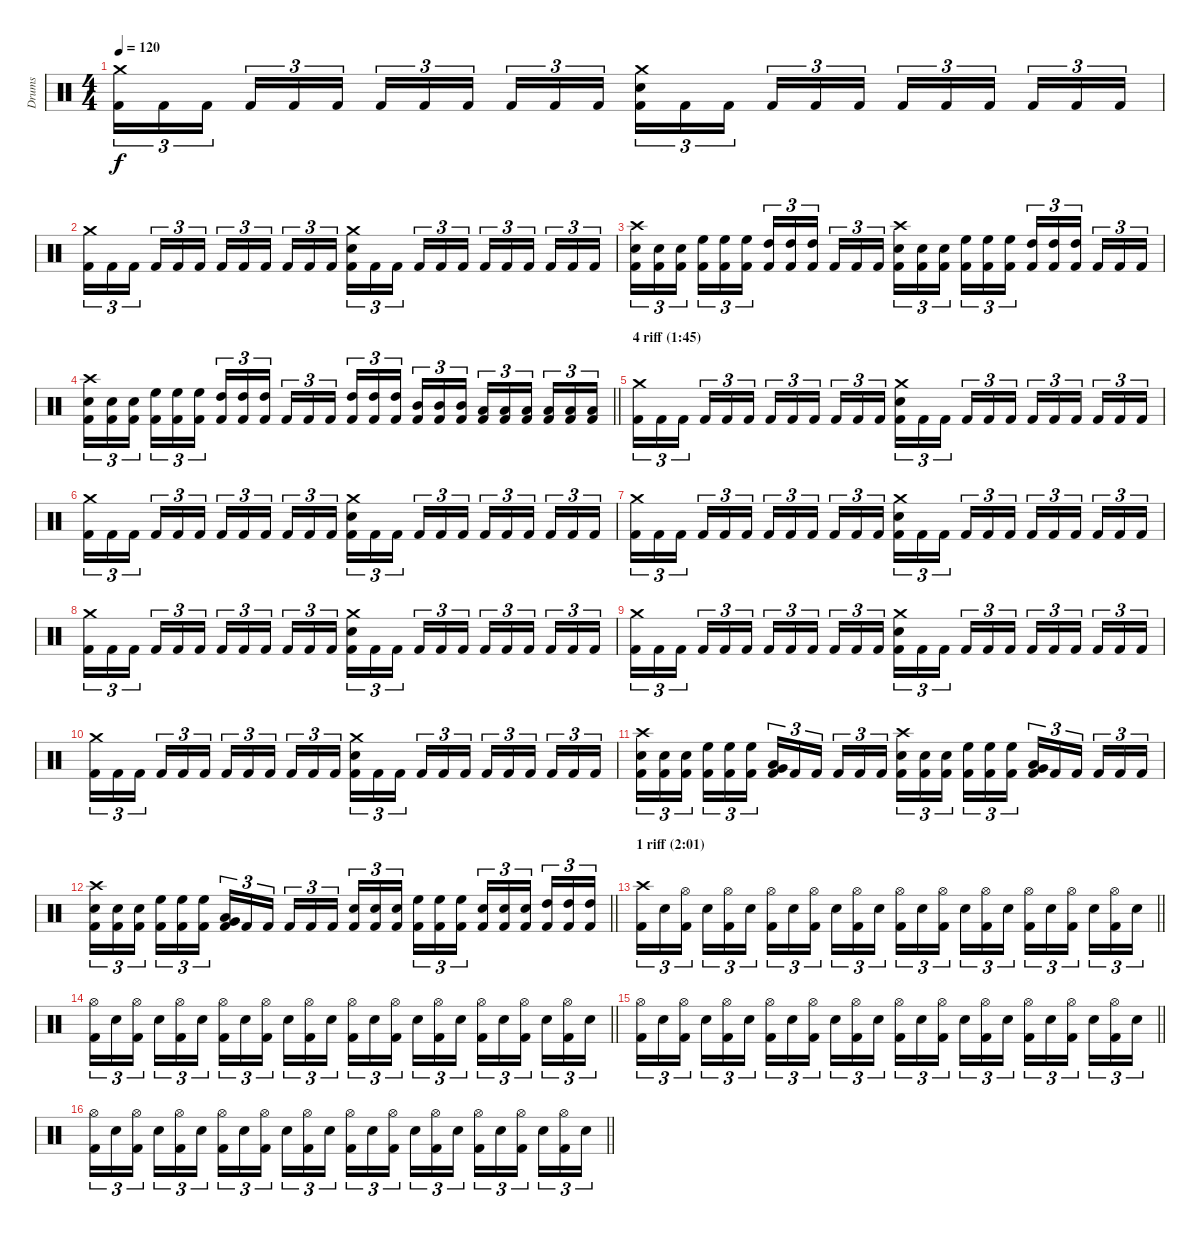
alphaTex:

\track ("Drums" "Drums") {instrument percussion}
\staff {score}
\articulation defaults
\ts (4 4)
\tempo 120
\clef neutral
\ks c
("Crash medium (hit)" "Kick (hit) 2").16{tu (3 2) dy f} "Kick (hit) 2".16{tu (3 2)} "Kick (hit) 2".16{tu (3 2) beam splitsecondary} "Kick (hit) 2".16{tu (3 2)} "Kick (hit) 2".16{tu (3 2)} "Kick (hit) 2".16{tu (3 2)} "Kick (hit) 2".16{tu (3 2)} "Kick (hit) 2".16{tu (3 2)} "Kick (hit) 2".16{tu (3 2) beam splitsecondary} "Kick (hit) 2".16{tu (3 2)} "Kick (hit) 2".16{tu (3 2)} "Kick (hit) 2".16{tu (3 2)} ("Crash medium (hit)" "Snare (hit) 2" "Kick (hit) 2").16{tu (3 2)} "Kick (hit) 2".16{tu (3 2)} "Kick (hit) 2".16{tu (3 2) beam splitsecondary} "Kick (hit) 2".16{tu (3 2)} "Kick (hit) 2".16{tu (3 2)} "Kick (hit) 2".16{tu (3 2)} "Kick (hit) 2".16{tu (3 2)} "Kick (hit) 2".16{tu (3 2)} "Kick (hit) 2".16{tu (3 2) beam splitsecondary} "Kick (hit) 2".16{tu (3 2)} "Kick (hit) 2".16{tu (3 2)} "Kick (hit) 2".16{tu (3 2)} |
("Crash medium (hit)" "Kick (hit) 2").16{tu (3 2)} "Kick (hit) 2".16{tu (3 2)} "Kick (hit) 2".16{tu (3 2) beam splitsecondary} "Kick (hit) 2".16{tu (3 2)} "Kick (hit) 2".16{tu (3 2)} "Kick (hit) 2".16{tu (3 2)} "Kick (hit) 2".16{tu (3 2)} "Kick (hit) 2".16{tu (3 2)} "Kick (hit) 2".16{tu (3 2) beam splitsecondary} "Kick (hit) 2".16{tu (3 2)} "Kick (hit) 2".16{tu (3 2)} "Kick (hit) 2".16{tu (3 2)} ("Crash medium (hit)" "Snare (hit) 2" "Kick (hit) 2").16{tu (3 2)} "Kick (hit) 2".16{tu (3 2)} "Kick (hit) 2".16{tu (3 2) beam splitsecondary} "Kick (hit) 2".16{tu (3 2)} "Kick (hit) 2".16{tu (3 2)} "Kick (hit) 2".16{tu (3 2)} "Kick (hit) 2".16{tu (3 2)} "Kick (hit) 2".16{tu (3 2)} "Kick (hit) 2".16{tu (3 2) beam splitsecondary} "Kick (hit) 2".16{tu (3 2)} "Kick (hit) 2".16{tu (3 2)} "Kick (hit) 2".16{tu (3 2)} |
("Crash high (hit)" "Snare (hit) 2" "Kick (hit) 2").16{tu (3 2)} ("Snare (hit) 2" "Kick (hit) 2").16{tu (3 2)} ("Snare (hit) 2" "Kick (hit) 2").16{tu (3 2) beam splitsecondary} ("High Floor Tom (hit)" "Kick (hit) 2").16{tu (3 2)} ("High Floor Tom (hit)" "Kick (hit) 2").16{tu (3 2)} ("High Floor Tom (hit)" "Kick (hit) 2").16{tu (3 2)} ("High Tom (hit)" "Kick (hit) 2").16{tu (3 2)} ("High Tom (hit)" "Kick (hit) 2").16{tu (3 2)} ("High Tom (hit)" "Kick (hit) 2").16{tu (3 2) beam splitsecondary} "Kick (hit) 2".16{tu (3 2)} "Kick (hit) 2".16{tu (3 2)} "Kick (hit) 2".16{tu (3 2)} ("Crash high (hit)" "Snare (hit) 2" "Kick (hit) 2").16{tu (3 2)} ("Snare (hit) 2" "Kick (hit) 2").16{tu (3 2)} ("Snare (hit) 2" "Kick (hit) 2").16{tu (3 2) beam splitsecondary} ("High Floor Tom (hit)" "Kick (hit) 2").16{tu (3 2)} ("High Floor Tom (hit)" "Kick (hit) 2").16{tu (3 2)} ("High Floor Tom (hit)" "Kick (hit) 2").16{tu (3 2)} ("High Tom (hit)" "Kick (hit) 2").16{tu (3 2)} ("High Tom (hit)" "Kick (hit) 2").16{tu (3 2)} ("High Tom (hit)" "Kick (hit) 2").16{tu (3 2) beam splitsecondary} "Kick (hit) 2".16{tu (3 2)} "Kick (hit) 2".16{tu (3 2)} "Kick (hit) 2".16{tu (3 2)} |
\barLineRight lightlight
("Crash high (hit)" "Snare (hit) 2" "Kick (hit) 2").16{tu (3 2)} ("Snare (hit) 2" "Kick (hit) 2").16{tu (3 2)} ("Snare (hit) 2" "Kick (hit) 2").16{tu (3 2) beam splitsecondary} ("High Floor Tom (hit)" "Kick (hit) 2").16{tu (3 2)} ("High Floor Tom (hit)" "Kick (hit) 2").16{tu (3 2)} ("High Floor Tom (hit)" "Kick (hit) 2").16{tu (3 2)} ("High Tom (hit)" "Kick (hit) 2").16{tu (3 2)} ("High Tom (hit)" "Kick (hit) 2").16{tu (3 2)} ("High Tom (hit)" "Kick (hit) 2").16{tu (3 2) beam splitsecondary} "Kick (hit) 2".16{tu (3 2)} "Kick (hit) 2".16{tu (3 2)} "Kick (hit) 2".16{tu (3 2)} ("High Tom (hit)" "Kick (hit) 2").16{tu (3 2)} ("High Tom (hit)" "Kick (hit) 2").16{tu (3 2)} ("High Tom (hit)" "Kick (hit) 2").16{tu (3 2) beam splitsecondary} ("Mid Tom (hit)" "Kick (hit) 2").16{tu (3 2)} ("Mid Tom (hit)" "Kick (hit) 2").16{tu (3 2)} ("Mid Tom (hit)" "Kick (hit) 2").16{tu (3 2)} ("Low Tom (hit)" "Kick (hit) 2").16{tu (3 2)} ("Low Tom (hit)" "Kick (hit) 2").16{tu (3 2)} ("Low Tom (hit)" "Kick (hit) 2").16{tu (3 2) beam splitsecondary} ("Low Tom (hit)" "Kick (hit) 2").16{tu (3 2)} ("Low Tom (hit)" "Kick (hit) 2").16{tu (3 2)} ("Low Tom (hit)" "Kick (hit) 2").16{tu (3 2)} |
\section ("" "4 riff (1:45)")
("Crash medium (hit)" "Kick (hit) 2").16{tu (3 2)} "Kick (hit) 2".16{tu (3 2)} "Kick (hit) 2".16{tu (3 2) beam splitsecondary} "Kick (hit) 2".16{tu (3 2)} "Kick (hit) 2".16{tu (3 2)} "Kick (hit) 2".16{tu (3 2)} "Kick (hit) 2".16{tu (3 2)} "Kick (hit) 2".16{tu (3 2)} "Kick (hit) 2".16{tu (3 2) beam splitsecondary} "Kick (hit) 2".16{tu (3 2)} "Kick (hit) 2".16{tu (3 2)} "Kick (hit) 2".16{tu (3 2)} ("Crash medium (hit)" "Snare (hit) 2" "Kick (hit) 2").16{tu (3 2)} "Kick (hit) 2".16{tu (3 2)} "Kick (hit) 2".16{tu (3 2) beam splitsecondary} "Kick (hit) 2".16{tu (3 2)} "Kick (hit) 2".16{tu (3 2)} "Kick (hit) 2".16{tu (3 2)} "Kick (hit) 2".16{tu (3 2)} "Kick (hit) 2".16{tu (3 2)} "Kick (hit) 2".16{tu (3 2) beam splitsecondary} "Kick (hit) 2".16{tu (3 2)} "Kick (hit) 2".16{tu (3 2)} "Kick (hit) 2".16{tu (3 2)} |
("Crash medium (hit)" "Kick (hit) 2").16{tu (3 2)} "Kick (hit) 2".16{tu (3 2)} "Kick (hit) 2".16{tu (3 2) beam splitsecondary} "Kick (hit) 2".16{tu (3 2)} "Kick (hit) 2".16{tu (3 2)} "Kick (hit) 2".16{tu (3 2)} "Kick (hit) 2".16{tu (3 2)} "Kick (hit) 2".16{tu (3 2)} "Kick (hit) 2".16{tu (3 2) beam splitsecondary} "Kick (hit) 2".16{tu (3 2)} "Kick (hit) 2".16{tu (3 2)} "Kick (hit) 2".16{tu (3 2)} ("Crash medium (hit)" "Snare (hit) 2" "Kick (hit) 2").16{tu (3 2)} "Kick (hit) 2".16{tu (3 2)} "Kick (hit) 2".16{tu (3 2) beam splitsecondary} "Kick (hit) 2".16{tu (3 2)} "Kick (hit) 2".16{tu (3 2)} "Kick (hit) 2".16{tu (3 2)} "Kick (hit) 2".16{tu (3 2)} "Kick (hit) 2".16{tu (3 2)} "Kick (hit) 2".16{tu (3 2) beam splitsecondary} "Kick (hit) 2".16{tu (3 2)} "Kick (hit) 2".16{tu (3 2)} "Kick (hit) 2".16{tu (3 2)} |
("Crash medium (hit)" "Kick (hit) 2").16{tu (3 2)} "Kick (hit) 2".16{tu (3 2)} "Kick (hit) 2".16{tu (3 2) beam splitsecondary} "Kick (hit) 2".16{tu (3 2)} "Kick (hit) 2".16{tu (3 2)} "Kick (hit) 2".16{tu (3 2)} "Kick (hit) 2".16{tu (3 2)} "Kick (hit) 2".16{tu (3 2)} "Kick (hit) 2".16{tu (3 2) beam splitsecondary} "Kick (hit) 2".16{tu (3 2)} "Kick (hit) 2".16{tu (3 2)} "Kick (hit) 2".16{tu (3 2)} ("Crash medium (hit)" "Snare (hit) 2" "Kick (hit) 2").16{tu (3 2)} "Kick (hit) 2".16{tu (3 2)} "Kick (hit) 2".16{tu (3 2) beam splitsecondary} "Kick (hit) 2".16{tu (3 2)} "Kick (hit) 2".16{tu (3 2)} "Kick (hit) 2".16{tu (3 2)} "Kick (hit) 2".16{tu (3 2)} "Kick (hit) 2".16{tu (3 2)} "Kick (hit) 2".16{tu (3 2) beam splitsecondary} "Kick (hit) 2".16{tu (3 2)} "Kick (hit) 2".16{tu (3 2)} "Kick (hit) 2".16{tu (3 2)} |
("Crash medium (hit)" "Kick (hit) 2").16{tu (3 2)} "Kick (hit) 2".16{tu (3 2)} "Kick (hit) 2".16{tu (3 2) beam splitsecondary} "Kick (hit) 2".16{tu (3 2)} "Kick (hit) 2".16{tu (3 2)} "Kick (hit) 2".16{tu (3 2)} "Kick (hit) 2".16{tu (3 2)} "Kick (hit) 2".16{tu (3 2)} "Kick (hit) 2".16{tu (3 2) beam splitsecondary} "Kick (hit) 2".16{tu (3 2)} "Kick (hit) 2".16{tu (3 2)} "Kick (hit) 2".16{tu (3 2)} ("Crash medium (hit)" "Snare (hit) 2" "Kick (hit) 2").16{tu (3 2)} "Kick (hit) 2".16{tu (3 2)} "Kick (hit) 2".16{tu (3 2) beam splitsecondary} "Kick (hit) 2".16{tu (3 2)} "Kick (hit) 2".16{tu (3 2)} "Kick (hit) 2".16{tu (3 2)} "Kick (hit) 2".16{tu (3 2)} "Kick (hit) 2".16{tu (3 2)} "Kick (hit) 2".16{tu (3 2) beam splitsecondary} "Kick (hit) 2".16{tu (3 2)} "Kick (hit) 2".16{tu (3 2)} "Kick (hit) 2".16{tu (3 2)} |
("Crash medium (hit)" "Kick (hit) 2").16{tu (3 2)} "Kick (hit) 2".16{tu (3 2)} "Kick (hit) 2".16{tu (3 2) beam splitsecondary} "Kick (hit) 2".16{tu (3 2)} "Kick (hit) 2".16{tu (3 2)} "Kick (hit) 2".16{tu (3 2)} "Kick (hit) 2".16{tu (3 2)} "Kick (hit) 2".16{tu (3 2)} "Kick (hit) 2".16{tu (3 2) beam splitsecondary} "Kick (hit) 2".16{tu (3 2)} "Kick (hit) 2".16{tu (3 2)} "Kick (hit) 2".16{tu (3 2)} ("Crash medium (hit)" "Snare (hit) 2" "Kick (hit) 2").16{tu (3 2)} "Kick (hit) 2".16{tu (3 2)} "Kick (hit) 2".16{tu (3 2) beam splitsecondary} "Kick (hit) 2".16{tu (3 2)} "Kick (hit) 2".16{tu (3 2)} "Kick (hit) 2".16{tu (3 2)} "Kick (hit) 2".16{tu (3 2)} "Kick (hit) 2".16{tu (3 2)} "Kick (hit) 2".16{tu (3 2) beam splitsecondary} "Kick (hit) 2".16{tu (3 2)} "Kick (hit) 2".16{tu (3 2)} "Kick (hit) 2".16{tu (3 2)} |
("Crash medium (hit)" "Kick (hit) 2").16{tu (3 2)} "Kick (hit) 2".16{tu (3 2)} "Kick (hit) 2".16{tu (3 2) beam splitsecondary} "Kick (hit) 2".16{tu (3 2)} "Kick (hit) 2".16{tu (3 2)} "Kick (hit) 2".16{tu (3 2)} "Kick (hit) 2".16{tu (3 2)} "Kick (hit) 2".16{tu (3 2)} "Kick (hit) 2".16{tu (3 2) beam splitsecondary} "Kick (hit) 2".16{tu (3 2)} "Kick (hit) 2".16{tu (3 2)} "Kick (hit) 2".16{tu (3 2)} ("Crash medium (hit)" "Snare (hit) 2" "Kick (hit) 2").16{tu (3 2)} "Kick (hit) 2".16{tu (3 2)} "Kick (hit) 2".16{tu (3 2) beam splitsecondary} "Kick (hit) 2".16{tu (3 2)} "Kick (hit) 2".16{tu (3 2)} "Kick (hit) 2".16{tu (3 2)} "Kick (hit) 2".16{tu (3 2)} "Kick (hit) 2".16{tu (3 2)} "Kick (hit) 2".16{tu (3 2) beam splitsecondary} "Kick (hit) 2".16{tu (3 2)} "Kick (hit) 2".16{tu (3 2)} "Kick (hit) 2".16{tu (3 2)} |
("Crash high (hit)" "Snare (hit) 2" "Kick (hit) 2").16{tu (3 2)} ("Snare (hit) 2" "Kick (hit) 2").16{tu (3 2)} ("Snare (hit) 2" "Kick (hit) 2").16{tu (3 2) beam splitsecondary} ("High Floor Tom (hit)" "Kick (hit) 2").16{tu (3 2)} ("High Floor Tom (hit)" "Kick (hit) 2").16{tu (3 2)} ("High Floor Tom (hit)" "Kick (hit) 2").16{tu (3 2)} ("Low Tom (hit)" "Very Low Tom (hit)" "Kick (hit) 2").16{tu (3 2)} "Kick (hit) 2".16{tu (3 2)} "Kick (hit) 2".16{tu (3 2) beam splitsecondary} "Kick (hit) 2".16{tu (3 2)} "Kick (hit) 2".16{tu (3 2)} "Kick (hit) 2".16{tu (3 2)} ("Crash high (hit)" "Snare (hit) 2" "Kick (hit) 2").16{tu (3 2)} ("Snare (hit) 2" "Kick (hit) 2").16{tu (3 2)} ("Snare (hit) 2" "Kick (hit) 2").16{tu (3 2) beam splitsecondary} ("High Floor Tom (hit)" "Kick (hit) 2").16{tu (3 2)} ("High Floor Tom (hit)" "Kick (hit) 2").16{tu (3 2)} ("High Floor Tom (hit)" "Kick (hit) 2").16{tu (3 2)} ("Low Tom (hit)" "Very Low Tom (hit)" "Kick (hit) 2").16{tu (3 2)} "Kick (hit) 2".16{tu (3 2)} "Kick (hit) 2".16{tu (3 2) beam splitsecondary} "Kick (hit) 2".16{tu (3 2)} "Kick (hit) 2".16{tu (3 2)} "Kick (hit) 2".16{tu (3 2)} |
\barLineRight lightlight
("Crash high (hit)" "Snare (hit) 2" "Kick (hit) 2").16{tu (3 2)} ("Snare (hit) 2" "Kick (hit) 2").16{tu (3 2)} ("Snare (hit) 2" "Kick (hit) 2").16{tu (3 2) beam splitsecondary} ("High Floor Tom (hit)" "Kick (hit) 2").16{tu (3 2)} ("High Floor Tom (hit)" "Kick (hit) 2").16{tu (3 2)} ("High Floor Tom (hit)" "Kick (hit) 2").16{tu (3 2)} ("Low Tom (hit)" "Very Low Tom (hit)" "Kick (hit) 2").16{tu (3 2)} "Kick (hit) 2".16{tu (3 2)} "Kick (hit) 2".16{tu (3 2) beam splitsecondary} "Kick (hit) 2".16{tu (3 2)} "Kick (hit) 2".16{tu (3 2)} "Kick (hit) 2".16{tu (3 2)} ("Snare (hit) 2" "Kick (hit) 2").16{tu (3 2)} ("Snare (hit) 2" "Kick (hit) 2").16{tu (3 2)} ("Snare (hit) 2" "Kick (hit) 2").16{tu (3 2) beam splitsecondary} ("High Floor Tom (hit)" "Kick (hit) 2").16{tu (3 2)} ("High Floor Tom (hit)" "Kick (hit) 2").16{tu (3 2)} ("High Floor Tom (hit)" "Kick (hit) 2").16{tu (3 2)} ("Snare (hit) 2" "Kick (hit) 2").16{tu (3 2)} ("Snare (hit) 2" "Kick (hit) 2").16{tu (3 2)} ("Snare (hit) 2" "Kick (hit) 2").16{tu (3 2) beam splitsecondary} ("High Tom (hit)" "Kick (hit) 2").16{tu (3 2)} ("High Tom (hit)" "Kick (hit) 2").16{tu (3 2)} ("High Tom (hit)" "Kick (hit) 2").16{tu (3 2)} |
\section ("" "1 riff (2:01)")
\barLineRight lightlight
("Crash high (hit)" "Kick (hit) 2").16{tu (3 2)} "Snare (hit) 2".16{tu (3 2)} ("Hi-Hat (open)" "Kick (hit) 2").16{tu (3 2) beam splitsecondary} "Snare (hit) 2".16{tu (3 2)} ("Hi-Hat (open)" "Kick (hit) 2").16{tu (3 2)} "Snare (hit) 2".16{tu (3 2)} ("Hi-Hat (open)" "Kick (hit) 2").16{tu (3 2)} "Snare (hit) 2".16{tu (3 2)} ("Hi-Hat (open)" "Kick (hit) 2").16{tu (3 2) beam splitsecondary} "Snare (hit) 2".16{tu (3 2)} ("Hi-Hat (open)" "Kick (hit) 2").16{tu (3 2)} "Snare (hit) 2".16{tu (3 2)} ("Hi-Hat (open)" "Kick (hit) 2").16{tu (3 2)} "Snare (hit) 2".16{tu (3 2)} ("Hi-Hat (open)" "Kick (hit) 2").16{tu (3 2) beam splitsecondary} "Snare (hit) 2".16{tu (3 2)} ("Hi-Hat (open)" "Kick (hit) 2").16{tu (3 2)} "Snare (hit) 2".16{tu (3 2)} ("Hi-Hat (open)" "Kick (hit) 2").16{tu (3 2)} "Snare (hit) 2".16{tu (3 2)} ("Hi-Hat (open)" "Kick (hit) 2").16{tu (3 2) beam splitsecondary} "Snare (hit) 2".16{tu (3 2)} ("Hi-Hat (open)" "Kick (hit) 2").16{tu (3 2)} "Snare (hit) 2".16{tu (3 2)} |
\barLineRight lightlight
("Hi-Hat (open)" "Kick (hit) 2").16{tu (3 2)} "Snare (hit) 2".16{tu (3 2)} ("Hi-Hat (open)" "Kick (hit) 2").16{tu (3 2) beam splitsecondary} "Snare (hit) 2".16{tu (3 2)} ("Hi-Hat (open)" "Kick (hit) 2").16{tu (3 2)} "Snare (hit) 2".16{tu (3 2)} ("Hi-Hat (open)" "Kick (hit) 2").16{tu (3 2)} "Snare (hit) 2".16{tu (3 2)} ("Hi-Hat (open)" "Kick (hit) 2").16{tu (3 2) beam splitsecondary} "Snare (hit) 2".16{tu (3 2)} ("Hi-Hat (open)" "Kick (hit) 2").16{tu (3 2)} "Snare (hit) 2".16{tu (3 2)} ("Hi-Hat (open)" "Kick (hit) 2").16{tu (3 2)} "Snare (hit) 2".16{tu (3 2)} ("Hi-Hat (open)" "Kick (hit) 2").16{tu (3 2) beam splitsecondary} "Snare (hit) 2".16{tu (3 2)} ("Hi-Hat (open)" "Kick (hit) 2").16{tu (3 2)} "Snare (hit) 2".16{tu (3 2)} ("Hi-Hat (open)" "Kick (hit) 2").16{tu (3 2)} "Snare (hit) 2".16{tu (3 2)} ("Hi-Hat (open)" "Kick (hit) 2").16{tu (3 2) beam splitsecondary} "Snare (hit) 2".16{tu (3 2)} ("Hi-Hat (open)" "Kick (hit) 2").16{tu (3 2)} "Snare (hit) 2".16{tu (3 2)} |
\barLineRight lightlight
("Hi-Hat (open)" "Kick (hit) 2").16{tu (3 2)} "Snare (hit) 2".16{tu (3 2)} ("Hi-Hat (open)" "Kick (hit) 2").16{tu (3 2) beam splitsecondary} "Snare (hit) 2".16{tu (3 2)} ("Hi-Hat (open)" "Kick (hit) 2").16{tu (3 2)} "Snare (hit) 2".16{tu (3 2)} ("Hi-Hat (open)" "Kick (hit) 2").16{tu (3 2)} "Snare (hit) 2".16{tu (3 2)} ("Hi-Hat (open)" "Kick (hit) 2").16{tu (3 2) beam splitsecondary} "Snare (hit) 2".16{tu (3 2)} ("Hi-Hat (open)" "Kick (hit) 2").16{tu (3 2)} "Snare (hit) 2".16{tu (3 2)} ("Hi-Hat (open)" "Kick (hit) 2").16{tu (3 2)} "Snare (hit) 2".16{tu (3 2)} ("Hi-Hat (open)" "Kick (hit) 2").16{tu (3 2) beam splitsecondary} "Snare (hit) 2".16{tu (3 2)} ("Hi-Hat (open)" "Kick (hit) 2").16{tu (3 2)} "Snare (hit) 2".16{tu (3 2)} ("Hi-Hat (open)" "Kick (hit) 2").16{tu (3 2)} "Snare (hit) 2".16{tu (3 2)} ("Hi-Hat (open)" "Kick (hit) 2").16{tu (3 2) beam splitsecondary} "Snare (hit) 2".16{tu (3 2)} ("Hi-Hat (open)" "Kick (hit) 2").16{tu (3 2)} "Snare (hit) 2".16{tu (3 2)} |
\barLineRight lightlight
("Hi-Hat (open)" "Kick (hit) 2").16{tu (3 2)} "Snare (hit) 2".16{tu (3 2)} ("Hi-Hat (open)" "Kick (hit) 2").16{tu (3 2) beam splitsecondary} "Snare (hit) 2".16{tu (3 2)} ("Hi-Hat (open)" "Kick (hit) 2").16{tu (3 2)} "Snare (hit) 2".16{tu (3 2)} ("Hi-Hat (open)" "Kick (hit) 2").16{tu (3 2)} "Snare (hit) 2".16{tu (3 2)} ("Hi-Hat (open)" "Kick (hit) 2").16{tu (3 2) beam splitsecondary} "Snare (hit) 2".16{tu (3 2)} ("Hi-Hat (open)" "Kick (hit) 2").16{tu (3 2)} "Snare (hit) 2".16{tu (3 2)} ("Hi-Hat (open)" "Kick (hit) 2").16{tu (3 2)} "Snare (hit) 2".16{tu (3 2)} ("Hi-Hat (open)" "Kick (hit) 2").16{tu (3 2) beam splitsecondary} "Snare (hit) 2".16{tu (3 2)} ("Hi-Hat (open)" "Kick (hit) 2").16{tu (3 2)} "Snare (hit) 2".16{tu (3 2)} ("Hi-Hat (open)" "Kick (hit) 2").16{tu (3 2)} "Snare (hit) 2".16{tu (3 2)} ("Hi-Hat (open)" "Kick (hit) 2").16{tu (3 2) beam splitsecondary} "Snare (hit) 2".16{tu (3 2)} ("Hi-Hat (open)" "Kick (hit) 2").16{tu (3 2)} "Snare (hit) 2".16{tu (3 2)}
